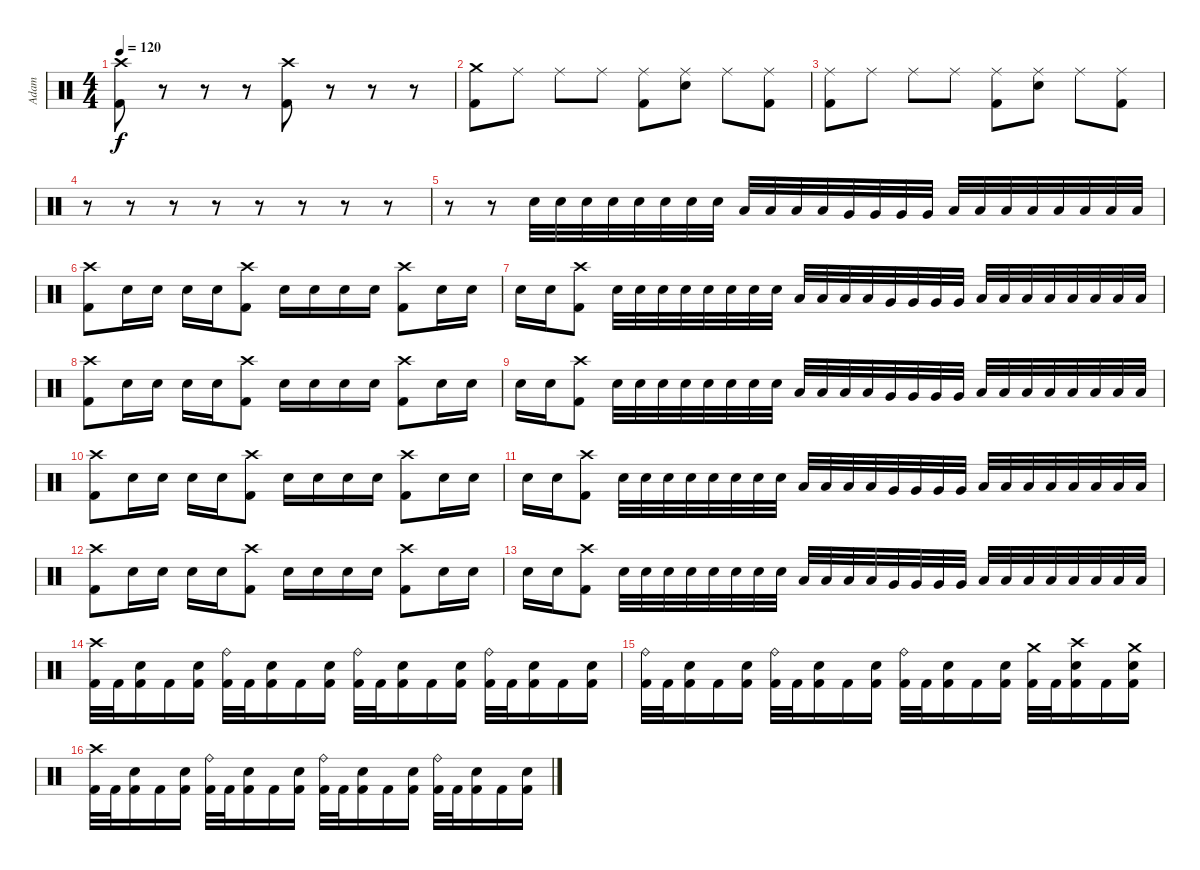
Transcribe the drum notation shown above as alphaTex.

\track ("Adam" "Adam") {instrument percussion}
\staff {score}
\articulation defaults
\ts (4 4)
\tempo 120
\clef neutral
\ks c
("Crash high (hit)" "Kick (hit) 2").8{dy f} r.8 r.8 r.8 ("Crash high (hit)" "Kick (hit) 2").8 r.8 r.8 r.8 |
("Crash medium (hit)" "Kick (hit) 2").8 "Ride (middle)".8 "Ride (middle)".8 "Ride (middle)".8 ("Ride (middle)" "Kick (hit) 2").8 ("Ride (middle)" "Electric Snare (hit)").8 "Ride (middle)".8 ("Ride (middle)" "Kick (hit) 2").8 |
("Ride (middle)" "Kick (hit) 2").8 "Ride (middle)".8 "Ride (middle)".8 "Ride (middle)".8 ("Ride (middle)" "Kick (hit) 2").8 ("Ride (middle)" "Electric Snare (hit)").8 "Ride (middle)".8 ("Ride (middle)" "Kick (hit) 2").8 |
r.8 r.8 r.8 r.8 r.8 r.8 r.8 r.8 |
r.8 r.8 "Electric Snare (hit)".32 "Electric Snare (hit)".32 "Electric Snare (hit)".32 "Electric Snare (hit)".32 "Electric Snare (hit)".32 "Electric Snare (hit)".32 "Electric Snare (hit)".32 "Electric Snare (hit)".32 "Low Tom (hit)".32 "Low Tom (hit)".32 "Low Tom (hit)".32 "Low Tom (hit)".32 "Very Low Tom (hit)".32 "Very Low Tom (hit)".32 "Very Low Tom (hit)".32 "Very Low Tom (hit)".32 "Low Floor Tom (hit)".32 "Low Floor Tom (hit)".32 "Low Floor Tom (hit)".32 "Low Floor Tom (hit)".32 "Low Floor Tom (hit)".32 "Low Floor Tom (hit)".32 "Low Floor Tom (hit)".32 "Low Floor Tom (hit)".32 |
("Crash high (hit)" "Kick (hit) 2").8 "Electric Snare (hit)".16 "Electric Snare (hit)".16 "Electric Snare (hit)".16 "Electric Snare (hit)".16 ("Crash high (hit)" "Kick (hit) 2").8 "Electric Snare (hit)".16 "Electric Snare (hit)".16 "Electric Snare (hit)".16 "Electric Snare (hit)".16 ("Crash high (hit)" "Kick (hit) 2").8 "Electric Snare (hit)".16 "Electric Snare (hit)".16 |
"Electric Snare (hit)".16 "Electric Snare (hit)".16 ("Crash high (hit)" "Kick (hit) 2").8 "Electric Snare (hit)".32 "Electric Snare (hit)".32 "Electric Snare (hit)".32 "Electric Snare (hit)".32 "Electric Snare (hit)".32 "Electric Snare (hit)".32 "Electric Snare (hit)".32 "Electric Snare (hit)".32 "Low Tom (hit)".32 "Low Tom (hit)".32 "Low Tom (hit)".32 "Low Tom (hit)".32 "Very Low Tom (hit)".32 "Very Low Tom (hit)".32 "Very Low Tom (hit)".32 "Very Low Tom (hit)".32 "Low Floor Tom (hit)".32 "Low Floor Tom (hit)".32 "Low Floor Tom (hit)".32 "Low Floor Tom (hit)".32 "Low Floor Tom (hit)".32 "Low Floor Tom (hit)".32 "Low Floor Tom (hit)".32 "Low Floor Tom (hit)".32 |
("Crash high (hit)" "Kick (hit) 2").8 "Electric Snare (hit)".16 "Electric Snare (hit)".16 "Electric Snare (hit)".16 "Electric Snare (hit)".16 ("Crash high (hit)" "Kick (hit) 2").8 "Electric Snare (hit)".16 "Electric Snare (hit)".16 "Electric Snare (hit)".16 "Electric Snare (hit)".16 ("Crash high (hit)" "Kick (hit) 2").8 "Electric Snare (hit)".16 "Electric Snare (hit)".16 |
"Electric Snare (hit)".16 "Electric Snare (hit)".16 ("Crash high (hit)" "Kick (hit) 2").8 "Electric Snare (hit)".32 "Electric Snare (hit)".32 "Electric Snare (hit)".32 "Electric Snare (hit)".32 "Electric Snare (hit)".32 "Electric Snare (hit)".32 "Electric Snare (hit)".32 "Electric Snare (hit)".32 "Low Tom (hit)".32 "Low Tom (hit)".32 "Low Tom (hit)".32 "Low Tom (hit)".32 "Very Low Tom (hit)".32 "Very Low Tom (hit)".32 "Very Low Tom (hit)".32 "Very Low Tom (hit)".32 "Low Floor Tom (hit)".32 "Low Floor Tom (hit)".32 "Low Floor Tom (hit)".32 "Low Floor Tom (hit)".32 "Low Floor Tom (hit)".32 "Low Floor Tom (hit)".32 "Low Floor Tom (hit)".32 "Low Floor Tom (hit)".32 |
("Crash high (hit)" "Kick (hit) 2").8 "Electric Snare (hit)".16 "Electric Snare (hit)".16 "Electric Snare (hit)".16 "Electric Snare (hit)".16 ("Crash high (hit)" "Kick (hit) 2").8 "Electric Snare (hit)".16 "Electric Snare (hit)".16 "Electric Snare (hit)".16 "Electric Snare (hit)".16 ("Crash high (hit)" "Kick (hit) 2").8 "Electric Snare (hit)".16 "Electric Snare (hit)".16 |
"Electric Snare (hit)".16 "Electric Snare (hit)".16 ("Crash high (hit)" "Kick (hit) 2").8 "Electric Snare (hit)".32 "Electric Snare (hit)".32 "Electric Snare (hit)".32 "Electric Snare (hit)".32 "Electric Snare (hit)".32 "Electric Snare (hit)".32 "Electric Snare (hit)".32 "Electric Snare (hit)".32 "Low Tom (hit)".32 "Low Tom (hit)".32 "Low Tom (hit)".32 "Low Tom (hit)".32 "Very Low Tom (hit)".32 "Very Low Tom (hit)".32 "Very Low Tom (hit)".32 "Very Low Tom (hit)".32 "Low Floor Tom (hit)".32 "Low Floor Tom (hit)".32 "Low Floor Tom (hit)".32 "Low Floor Tom (hit)".32 "Low Floor Tom (hit)".32 "Low Floor Tom (hit)".32 "Low Floor Tom (hit)".32 "Low Floor Tom (hit)".32 |
("Crash high (hit)" "Kick (hit) 2").8 "Electric Snare (hit)".16 "Electric Snare (hit)".16 "Electric Snare (hit)".16 "Electric Snare (hit)".16 ("Crash high (hit)" "Kick (hit) 2").8 "Electric Snare (hit)".16 "Electric Snare (hit)".16 "Electric Snare (hit)".16 "Electric Snare (hit)".16 ("Crash high (hit)" "Kick (hit) 2").8 "Electric Snare (hit)".16 "Electric Snare (hit)".16 |
"Electric Snare (hit)".16 "Electric Snare (hit)".16 ("Crash high (hit)" "Kick (hit) 2").8 "Electric Snare (hit)".32 "Electric Snare (hit)".32 "Electric Snare (hit)".32 "Electric Snare (hit)".32 "Electric Snare (hit)".32 "Electric Snare (hit)".32 "Electric Snare (hit)".32 "Electric Snare (hit)".32 "Low Tom (hit)".32 "Low Tom (hit)".32 "Low Tom (hit)".32 "Low Tom (hit)".32 "Very Low Tom (hit)".32 "Very Low Tom (hit)".32 "Very Low Tom (hit)".32 "Very Low Tom (hit)".32 "Low Floor Tom (hit)".32 "Low Floor Tom (hit)".32 "Low Floor Tom (hit)".32 "Low Floor Tom (hit)".32 "Low Floor Tom (hit)".32 "Low Floor Tom (hit)".32 "Low Floor Tom (hit)".32 "Low Floor Tom (hit)".32 |
("Crash high (hit)" "Kick (hit) 2").32 "Kick (hit) 2".32 ("Electric Snare (hit)" "Kick (hit) 2").16 "Kick (hit) 2".16 ("Electric Snare (hit)" "Kick (hit) 2").16 ("Ride (bell)" "Kick (hit) 2").32 "Kick (hit) 2".32 ("Electric Snare (hit)" "Kick (hit) 2").16 "Kick (hit) 2".16 ("Electric Snare (hit)" "Kick (hit) 2").16 ("Ride (bell)" "Kick (hit) 2").32 "Kick (hit) 2".32 ("Electric Snare (hit)" "Kick (hit) 2").16 "Kick (hit) 2".16 ("Electric Snare (hit)" "Kick (hit) 2").16 ("Ride (bell)" "Kick (hit) 2").32 "Kick (hit) 2".32 ("Electric Snare (hit)" "Kick (hit) 2").16 "Kick (hit) 2".16 ("Electric Snare (hit)" "Kick (hit) 2").16 |
("Ride (bell)" "Kick (hit) 2").32 "Kick (hit) 2".32 ("Electric Snare (hit)" "Kick (hit) 2").16 "Kick (hit) 2".16 ("Electric Snare (hit)" "Kick (hit) 2").16 ("Ride (bell)" "Kick (hit) 2").32 "Kick (hit) 2".32 ("Electric Snare (hit)" "Kick (hit) 2").16 "Kick (hit) 2".16 ("Electric Snare (hit)" "Kick (hit) 2").16 ("Ride (bell)" "Kick (hit) 2").32 "Kick (hit) 2".32 ("Electric Snare (hit)" "Kick (hit) 2").16 "Kick (hit) 2".16 ("Electric Snare (hit)" "Kick (hit) 2").16 ("Crash medium (hit)" "Kick (hit) 2").32 "Kick (hit) 2".32 ("Crash high (hit)" "Electric Snare (hit)" "Kick (hit) 2").16 "Kick (hit) 2".16 ("Crash medium (hit)" "Electric Snare (hit)" "Kick (hit) 2").16 |
("Crash high (hit)" "Kick (hit) 2").32 "Kick (hit) 2".32 ("Electric Snare (hit)" "Kick (hit) 2").16 "Kick (hit) 2".16 ("Electric Snare (hit)" "Kick (hit) 2").16 ("Ride (bell)" "Kick (hit) 2").32 "Kick (hit) 2".32 ("Electric Snare (hit)" "Kick (hit) 2").16 "Kick (hit) 2".16 ("Electric Snare (hit)" "Kick (hit) 2").16 ("Ride (bell)" "Kick (hit) 2").32 "Kick (hit) 2".32 ("Electric Snare (hit)" "Kick (hit) 2").16 "Kick (hit) 2".16 ("Electric Snare (hit)" "Kick (hit) 2").16 ("Ride (bell)" "Kick (hit) 2").32 "Kick (hit) 2".32 ("Electric Snare (hit)" "Kick (hit) 2").16 "Kick (hit) 2".16 ("Electric Snare (hit)" "Kick (hit) 2").16
